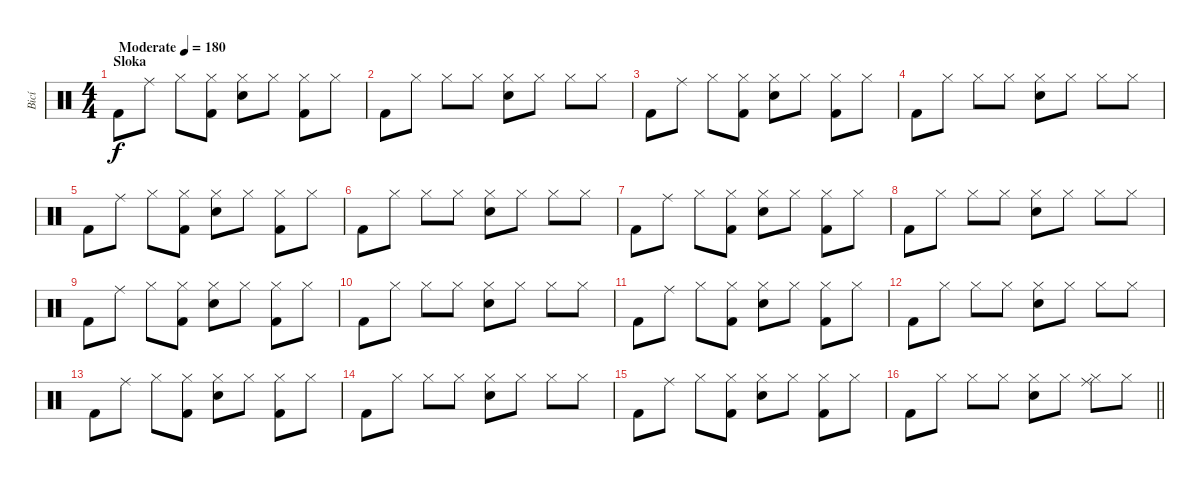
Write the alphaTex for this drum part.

\track ("Bicí" "Bicí") {instrument percussion}
\staff {score}
\articulation defaults
\ts (4 4)
\section ("" "Sloka")
\tempo (180 "Moderate")
\clef neutral
\ks c "Kick (hit) 2".8{dy f} "Ride (middle)".8 "Hi-Hat (closed)".8
("Kick (hit) 2" "Hi-Hat (closed)").8 ("Hand Clap (hit)" "Hi-Hat (closed)").8 "Hi-Hat (closed)".8 ("Kick (hit) 2" "Hi-Hat (closed)").8 "Hi-Hat (closed)".8 |
"Kick (hit) 2".8 "Hi-Hat (closed)".8 "Hi-Hat (closed)".8 "Hi-Hat (closed)".8 ("Hand Clap (hit)" "Hi-Hat (closed)").8 "Hi-Hat (closed)".8 "Hi-Hat (closed)".8 "Hi-Hat (closed)".8 |
"Kick (hit) 2".8 "Ride (middle)".8 "Hi-Hat (closed)".8 ("Kick (hit) 2" "Hi-Hat (closed)").8 ("Hand Clap (hit)" "Hi-Hat (closed)").8 "Hi-Hat (closed)".8 ("Kick (hit) 2" "Hi-Hat (closed)").8 "Hi-Hat (closed)".8 |
"Kick (hit) 2".8 "Hi-Hat (closed)".8 "Hi-Hat (closed)".8 "Hi-Hat (closed)".8 ("Hand Clap (hit)" "Hi-Hat (closed)").8 "Hi-Hat (closed)".8 "Hi-Hat (closed)".8 "Hi-Hat (closed)".8 |
"Kick (hit) 2".8 "Ride (middle)".8 "Hi-Hat (closed)".8 ("Kick (hit) 2" "Hi-Hat (closed)").8 ("Hand Clap (hit)" "Hi-Hat (closed)").8 "Hi-Hat (closed)".8 ("Kick (hit) 2" "Hi-Hat (closed)").8 "Hi-Hat (closed)".8 |
"Kick (hit) 2".8 "Hi-Hat (closed)".8 "Hi-Hat (closed)".8 "Hi-Hat (closed)".8 ("Hand Clap (hit)" "Hi-Hat (closed)").8 "Hi-Hat (closed)".8 "Hi-Hat (closed)".8 "Hi-Hat (closed)".8 |
"Kick (hit) 2".8 "Ride (middle)".8 "Hi-Hat (closed)".8 ("Kick (hit) 2" "Hi-Hat (closed)").8 ("Hand Clap (hit)" "Hi-Hat (closed)").8 "Hi-Hat (closed)".8 ("Kick (hit) 2" "Hi-Hat (closed)").8 "Hi-Hat (closed)".8 |
"Kick (hit) 2".8 "Hi-Hat (closed)".8 "Hi-Hat (closed)".8 "Hi-Hat (closed)".8 ("Hand Clap (hit)" "Hi-Hat (closed)").8 "Hi-Hat (closed)".8 "Hi-Hat (closed)".8 "Hi-Hat (closed)".8 |
"Kick (hit) 2".8 "Ride (middle)".8 "Hi-Hat (closed)".8 ("Kick (hit) 2" "Hi-Hat (closed)").8 ("Hand Clap (hit)" "Hi-Hat (closed)").8 "Hi-Hat (closed)".8 ("Kick (hit) 2" "Hi-Hat (closed)").8 "Hi-Hat (closed)".8 |
"Kick (hit) 2".8 "Hi-Hat (closed)".8 "Hi-Hat (closed)".8 "Hi-Hat (closed)".8 ("Hand Clap (hit)" "Hi-Hat (closed)").8 "Hi-Hat (closed)".8 "Hi-Hat (closed)".8 "Hi-Hat (closed)".8 |
"Kick (hit) 2".8 "Ride (middle)".8 "Hi-Hat (closed)".8 ("Kick (hit) 2" "Hi-Hat (closed)").8 ("Hand Clap (hit)" "Hi-Hat (closed)").8 "Hi-Hat (closed)".8 ("Kick (hit) 2" "Hi-Hat (closed)").8 "Hi-Hat (closed)".8 |
"Kick (hit) 2".8 "Hi-Hat (closed)".8 "Hi-Hat (closed)".8 "Hi-Hat (closed)".8 ("Hand Clap (hit)" "Hi-Hat (closed)").8 "Hi-Hat (closed)".8 "Hi-Hat (closed)".8 "Hi-Hat (closed)".8 |
"Kick (hit) 2".8 "Ride (middle)".8 "Hi-Hat (closed)".8 ("Kick (hit) 2" "Hi-Hat (closed)").8 ("Hand Clap (hit)" "Hi-Hat (closed)").8 "Hi-Hat (closed)".8 ("Kick (hit) 2" "Hi-Hat (closed)").8 "Hi-Hat (closed)".8 |
"Kick (hit) 2".8 "Hi-Hat (closed)".8 "Hi-Hat (closed)".8 "Hi-Hat (closed)".8 ("Hand Clap (hit)" "Hi-Hat (closed)").8 "Hi-Hat (closed)".8 "Hi-Hat (closed)".8 "Hi-Hat (closed)".8 |
"Kick (hit) 2".8 "Ride (middle)".8 "Hi-Hat (closed)".8 ("Kick (hit) 2" "Hi-Hat (closed)").8 ("Hand Clap (hit)" "Hi-Hat (closed)").8 "Hi-Hat (closed)".8 ("Kick (hit) 2" "Hi-Hat (closed)").8 "Hi-Hat (closed)".8 |
\barLineRight lightlight "Kick (hit) 2".8 "Hi-Hat (closed)".8 "Hi-Hat (closed)".8 "Hi-Hat (closed)".8
("Hand Clap (hit)" "Hi-Hat (closed)").8 "Hi-Hat (closed)".8 ("Hi-Hat (closed)" "Ride (middle)").8 "Hi-Hat (closed)".8
